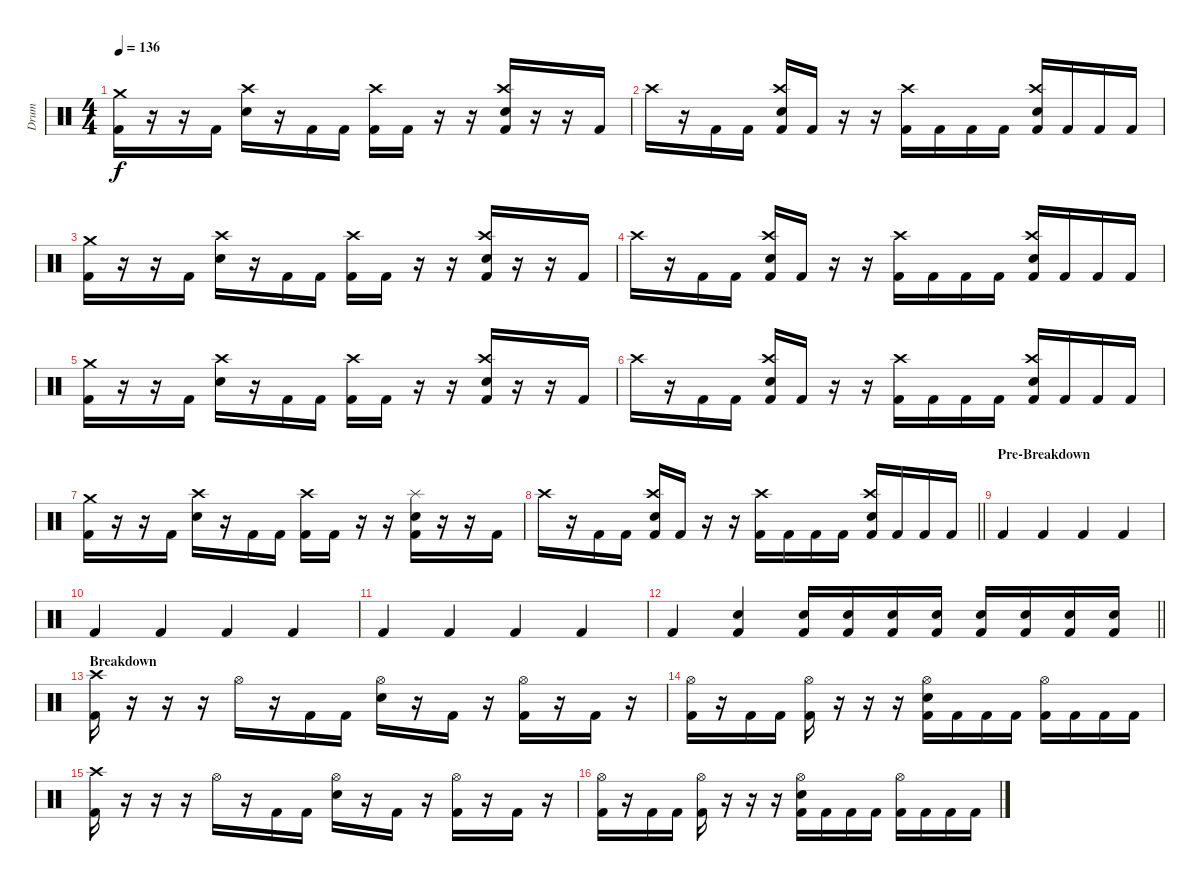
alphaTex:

\track ("Drum" "Drum") {instrument percussion}
\staff {score}
\articulation defaults
\ts (4 4)
\tempo 136
\clef neutral
\ks c
("Crash medium (hit)" "Kick (hit) 2").16{dy f} r.16 r.16 "Kick (hit) 2".16 ("Crash high (hit)" "Snare (hit) 2").16 r.16 "Kick (hit) 2".16 "Kick (hit) 2".16 ("Crash high (hit)" "Kick (hit) 2").16 "Kick (hit) 2".16 r.16 r.16 ("Crash high (hit)" "Snare (hit) 2" "Kick (hit) 2").16 r.16 r.16 "Kick (hit) 2".16 |
"Crash high (hit)".16 r.16 "Kick (hit) 2".16 "Kick (hit) 2".16 ("Crash high (hit)" "Snare (hit) 2" "Kick (hit) 2").16 "Kick (hit) 2".16 r.16 r.16 ("Crash high (hit)" "Kick (hit) 2").16 "Kick (hit) 2".16 "Kick (hit) 2".16 "Kick (hit) 2".16 ("Crash high (hit)" "Snare (hit) 2" "Kick (hit) 2").16 "Kick (hit) 2".16 "Kick (hit) 2".16 "Kick (hit) 2".16 |
("Crash medium (hit)" "Kick (hit) 2").16 r.16 r.16 "Kick (hit) 2".16 ("Crash high (hit)" "Snare (hit) 2").16 r.16 "Kick (hit) 2".16 "Kick (hit) 2".16 ("Crash high (hit)" "Kick (hit) 2").16 "Kick (hit) 2".16 r.16 r.16 ("Crash high (hit)" "Snare (hit) 2" "Kick (hit) 2").16 r.16 r.16 "Kick (hit) 2".16 |
"Crash high (hit)".16 r.16 "Kick (hit) 2".16 "Kick (hit) 2".16 ("Crash high (hit)" "Snare (hit) 2" "Kick (hit) 2").16 "Kick (hit) 2".16 r.16 r.16 ("Crash high (hit)" "Kick (hit) 2").16 "Kick (hit) 2".16 "Kick (hit) 2".16 "Kick (hit) 2".16 ("Crash high (hit)" "Snare (hit) 2" "Kick (hit) 2").16 "Kick (hit) 2".16 "Kick (hit) 2".16 "Kick (hit) 2".16 |
("Crash medium (hit)" "Kick (hit) 2").16 r.16 r.16 "Kick (hit) 2".16 ("Crash high (hit)" "Snare (hit) 2").16 r.16 "Kick (hit) 2".16 "Kick (hit) 2".16 ("Crash high (hit)" "Kick (hit) 2").16 "Kick (hit) 2".16 r.16 r.16 ("Crash high (hit)" "Snare (hit) 2" "Kick (hit) 2").16 r.16 r.16 "Kick (hit) 2".16 |
"Crash high (hit)".16 r.16 "Kick (hit) 2".16 "Kick (hit) 2".16 ("Crash high (hit)" "Snare (hit) 2" "Kick (hit) 2").16 "Kick (hit) 2".16 r.16 r.16 ("Crash high (hit)" "Kick (hit) 2").16 "Kick (hit) 2".16 "Kick (hit) 2".16 "Kick (hit) 2".16 ("Crash high (hit)" "Snare (hit) 2" "Kick (hit) 2").16 "Kick (hit) 2".16 "Kick (hit) 2".16 "Kick (hit) 2".16 |
("Crash medium (hit)" "Kick (hit) 2").16 r.16 r.16 "Kick (hit) 2".16 ("Crash high (hit)" "Snare (hit) 2").16 r.16 "Kick (hit) 2".16 "Kick (hit) 2".16 ("Crash high (hit)" "Kick (hit) 2").16 "Kick (hit) 2".16 r.16 r.16 ("Splash (hit)" "Snare (hit) 2" "Kick (hit) 2").16 r.16 r.16 "Kick (hit) 2".16 |
\barLineRight lightlight "Crash high (hit)".16
r.16 "Kick (hit) 2".16 "Kick (hit) 2".16 ("Crash high (hit)" "Snare (hit) 2" "Kick (hit) 2").16 "Kick (hit) 2".16 r.16 r.16 ("Crash high (hit)" "Kick (hit) 2").16 "Kick (hit) 2".16 "Kick (hit) 2".16 "Kick (hit) 2".16 ("Crash high (hit)" "Snare (hit) 2" "Kick (hit) 2").16 "Kick (hit) 2".16 "Kick (hit) 2".16 "Kick (hit) 2".16 |
\section ("" "Pre-Breakdown")
"Kick (hit) 2".4 "Kick (hit) 2".4 "Kick (hit) 2".4 "Kick (hit) 2".4 |
"Kick (hit) 2".4 "Kick (hit) 2".4 "Kick (hit) 2".4 "Kick (hit) 2".4 |
"Kick (hit) 2".4 "Kick (hit) 2".4 "Kick (hit) 2".4 "Kick (hit) 2".4 |
\barLineRight lightlight "Kick (hit) 2".4
("Snare (hit) 2" "Kick (hit) 2").4 ("Snare (hit) 2" "Kick (hit) 2").16 ("Snare (hit) 2" "Kick (hit) 2").16 ("Snare (hit) 2" "Kick (hit) 2").16 ("Snare (hit) 2" "Kick (hit) 2").16 ("Snare (hit) 2" "Kick (hit) 2").16 ("Snare (hit) 2" "Kick (hit) 2").16 ("Snare (hit) 2" "Kick (hit) 2").16 ("Snare (hit) 2" "Kick (hit) 2").16 |
\section ("" "Breakdown")
("Crash high (hit)" "Kick (hit) 2").16 r.16 r.16 r.16 "Hi-Hat (open)".16 r.16 "Kick (hit) 2".16 "Kick (hit) 2".16 ("Hi-Hat (open)" "Snare (hit) 2").16 r.16 "Kick (hit) 2".16 r.16 ("Hi-Hat (open)" "Kick (hit) 2").16 r.16 "Kick (hit) 2".16 r.16 |
("Hi-Hat (open)" "Kick (hit) 2").16 r.16 "Kick (hit) 2".16 "Kick (hit) 2".16 ("Hi-Hat (open)" "Kick (hit) 2").16 r.16 r.16 r.16 ("Hi-Hat (open)" "Snare (hit) 2" "Kick (hit) 2").16 "Kick (hit) 2".16 "Kick (hit) 2".16 "Kick (hit) 2".16 ("Hi-Hat (open)" "Kick (hit) 2").16 "Kick (hit) 2".16 "Kick (hit) 2".16 "Kick (hit) 2".16 |
("Crash high (hit)" "Kick (hit) 2").16 r.16 r.16 r.16 "Hi-Hat (open)".16 r.16 "Kick (hit) 2".16 "Kick (hit) 2".16 ("Hi-Hat (open)" "Snare (hit) 2").16 r.16 "Kick (hit) 2".16 r.16 ("Hi-Hat (open)" "Kick (hit) 2").16 r.16 "Kick (hit) 2".16 r.16 |
("Hi-Hat (open)" "Kick (hit) 2").16 r.16 "Kick (hit) 2".16 "Kick (hit) 2".16 ("Hi-Hat (open)" "Kick (hit) 2").16 r.16 r.16 r.16 ("Hi-Hat (open)" "Snare (hit) 2" "Kick (hit) 2").16 "Kick (hit) 2".16 "Kick (hit) 2".16 "Kick (hit) 2".16 ("Hi-Hat (open)" "Kick (hit) 2").16 "Kick (hit) 2".16 "Kick (hit) 2".16 "Kick (hit) 2".16
